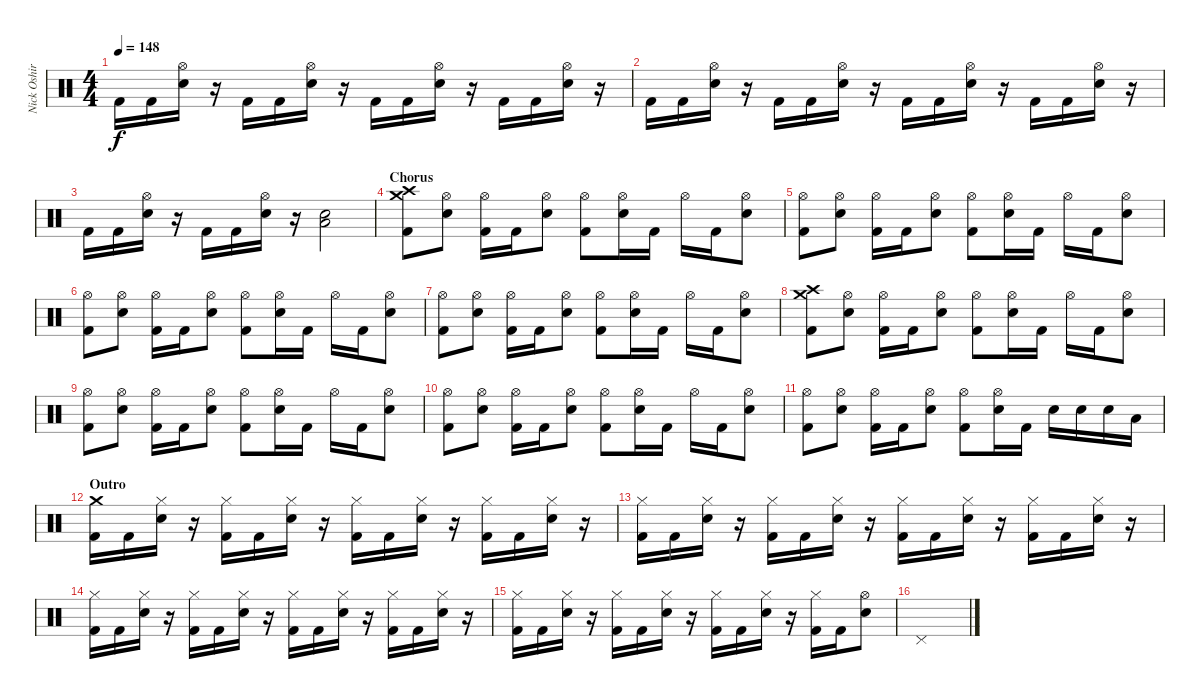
\track ("Nick Oshiro - Drums" "Nick Oshir") {instrument percussion}
\staff {score}
\articulation defaults
\ts (4 4)
\tempo 148
\clef neutral
\ks c "Kick (hit) 2".16{dy f} "Kick (hit) 2".16
("Hi-Hat (open)" "Electric Snare (hit)").16 r.16 "Kick (hit) 2".16 "Kick (hit) 2".16 ("Hi-Hat (open)" "Electric Snare (hit)").16 r.16 "Kick (hit) 2".16 "Kick (hit) 2".16 ("Hi-Hat (open)" "Electric Snare (hit)").16 r.16 "Kick (hit) 2".16 "Kick (hit) 2".16 ("Hi-Hat (open)" "Electric Snare (hit)").16 r.16 |
"Kick (hit) 2".16 "Kick (hit) 2".16 ("Hi-Hat (open)" "Electric Snare (hit)").16 r.16 "Kick (hit) 2".16 "Kick (hit) 2".16 ("Hi-Hat (open)" "Electric Snare (hit)").16 r.16 "Kick (hit) 2".16 "Kick (hit) 2".16 ("Hi-Hat (open)" "Electric Snare (hit)").16 r.16 "Kick (hit) 2".16 "Kick (hit) 2".16 ("Hi-Hat (open)" "Electric Snare (hit)").16 r.16 |
"Kick (hit) 2".16 "Kick (hit) 2".16 ("Hi-Hat (open)" "Electric Snare (hit)").16 r.16 "Kick (hit) 2".16 "Kick (hit) 2".16 ("Hi-Hat (open)" "Electric Snare (hit)").16 r.16 ("Electric Snare (hit)" "Low Tom (hit)").2 |
\section ("" "Chorus")
("Crash high (hit)" "Crash medium (hit)" "Kick (hit) 2").8 ("Hi-Hat (open)" "Electric Snare (hit)").8 ("Hi-Hat (open)" "Kick (hit) 2").16 "Kick (hit) 2".16 ("Hi-Hat (open)" "Electric Snare (hit)").8 ("Hi-Hat (open)" "Kick (hit) 2").8 ("Hi-Hat (open)" "Electric Snare (hit)").16 "Kick (hit) 2".16 "Hi-Hat (open)".16 "Kick (hit) 2".16 ("Hi-Hat (open)" "Electric Snare (hit)").8 |
("Hi-Hat (open)" "Kick (hit) 2").8 ("Hi-Hat (open)" "Electric Snare (hit)").8 ("Hi-Hat (open)" "Kick (hit) 2").16 "Kick (hit) 2".16 ("Hi-Hat (open)" "Electric Snare (hit)").8 ("Hi-Hat (open)" "Kick (hit) 2").8 ("Hi-Hat (open)" "Electric Snare (hit)").16 "Kick (hit) 2".16 "Hi-Hat (open)".16 "Kick (hit) 2".16 ("Hi-Hat (open)" "Electric Snare (hit)").8 |
("Hi-Hat (open)" "Kick (hit) 2").8 ("Hi-Hat (open)" "Electric Snare (hit)").8 ("Hi-Hat (open)" "Kick (hit) 2").16 "Kick (hit) 2".16 ("Hi-Hat (open)" "Electric Snare (hit)").8 ("Hi-Hat (open)" "Kick (hit) 2").8 ("Hi-Hat (open)" "Electric Snare (hit)").16 "Kick (hit) 2".16 "Hi-Hat (open)".16 "Kick (hit) 2".16 ("Hi-Hat (open)" "Electric Snare (hit)").8 |
("Hi-Hat (open)" "Kick (hit) 2").8 ("Hi-Hat (open)" "Electric Snare (hit)").8 ("Hi-Hat (open)" "Kick (hit) 2").16 "Kick (hit) 2".16 ("Hi-Hat (open)" "Electric Snare (hit)").8 ("Hi-Hat (open)" "Kick (hit) 2").8 ("Hi-Hat (open)" "Electric Snare (hit)").16 "Kick (hit) 2".16 "Hi-Hat (open)".16 "Kick (hit) 2".16 ("Hi-Hat (open)" "Electric Snare (hit)").8 |
("Crash high (hit)" "Crash medium (hit)" "Kick (hit) 2").8 ("Hi-Hat (open)" "Electric Snare (hit)").8 ("Hi-Hat (open)" "Kick (hit) 2").16 "Kick (hit) 2".16 ("Hi-Hat (open)" "Electric Snare (hit)").8 ("Hi-Hat (open)" "Kick (hit) 2").8 ("Hi-Hat (open)" "Electric Snare (hit)").16 "Kick (hit) 2".16 "Hi-Hat (open)".16 "Kick (hit) 2".16 ("Hi-Hat (open)" "Electric Snare (hit)").8 |
("Hi-Hat (open)" "Kick (hit) 2").8 ("Hi-Hat (open)" "Electric Snare (hit)").8 ("Hi-Hat (open)" "Kick (hit) 2").16 "Kick (hit) 2".16 ("Hi-Hat (open)" "Electric Snare (hit)").8 ("Hi-Hat (open)" "Kick (hit) 2").8 ("Hi-Hat (open)" "Electric Snare (hit)").16 "Kick (hit) 2".16 "Hi-Hat (open)".16 "Kick (hit) 2".16 ("Hi-Hat (open)" "Electric Snare (hit)").8 |
("Hi-Hat (open)" "Kick (hit) 2").8 ("Hi-Hat (open)" "Electric Snare (hit)").8 ("Hi-Hat (open)" "Kick (hit) 2").16 "Kick (hit) 2".16 ("Hi-Hat (open)" "Electric Snare (hit)").8 ("Hi-Hat (open)" "Kick (hit) 2").8 ("Hi-Hat (open)" "Electric Snare (hit)").16 "Kick (hit) 2".16 "Hi-Hat (open)".16 "Kick (hit) 2".16 ("Hi-Hat (open)" "Electric Snare (hit)").8 |
("Hi-Hat (open)" "Kick (hit) 2").8 ("Hi-Hat (open)" "Electric Snare (hit)").8 ("Hi-Hat (open)" "Kick (hit) 2").16 "Kick (hit) 2".16 ("Hi-Hat (open)" "Electric Snare (hit)").8 ("Hi-Hat (open)" "Kick (hit) 2").8 ("Hi-Hat (open)" "Electric Snare (hit)").16 "Kick (hit) 2".16 "Electric Snare (hit)".16 "Electric Snare (hit)".16 "Electric Snare (hit)".16 "Low Tom (hit)".16 |
\section ("" "Outro")
("Crash medium (hit)" "Kick (hit) 2").16 "Kick (hit) 2".16 ("Hi-Hat (closed)" "Electric Snare (hit)").16 r.16 ("Hi-Hat (closed)" "Kick (hit) 2").16 "Kick (hit) 2".16 ("Hi-Hat (closed)" "Electric Snare (hit)").16 r.16 ("Hi-Hat (closed)" "Kick (hit) 2").16 "Kick (hit) 2".16 ("Hi-Hat (closed)" "Electric Snare (hit)").16 r.16 ("Hi-Hat (closed)" "Kick (hit) 2").16 "Kick (hit) 2".16 ("Hi-Hat (closed)" "Electric Snare (hit)").16 r.16 |
("Hi-Hat (closed)" "Kick (hit) 2").16 "Kick (hit) 2".16 ("Hi-Hat (closed)" "Electric Snare (hit)").16 r.16 ("Hi-Hat (closed)" "Kick (hit) 2").16 "Kick (hit) 2".16 ("Hi-Hat (closed)" "Electric Snare (hit)").16 r.16 ("Hi-Hat (closed)" "Kick (hit) 2").16 "Kick (hit) 2".16 ("Hi-Hat (closed)" "Electric Snare (hit)").16 r.16 ("Hi-Hat (closed)" "Kick (hit) 2").16 "Kick (hit) 2".16 ("Hi-Hat (closed)" "Electric Snare (hit)").16 r.16 |
("Hi-Hat (closed)" "Kick (hit) 2").16 "Kick (hit) 2".16 ("Hi-Hat (closed)" "Electric Snare (hit)").16 r.16 ("Hi-Hat (closed)" "Kick (hit) 2").16 "Kick (hit) 2".16 ("Hi-Hat (closed)" "Electric Snare (hit)").16 r.16 ("Hi-Hat (closed)" "Kick (hit) 2").16 "Kick (hit) 2".16 ("Hi-Hat (closed)" "Electric Snare (hit)").16 r.16 ("Hi-Hat (closed)" "Kick (hit) 2").16 "Kick (hit) 2".16 ("Hi-Hat (closed)" "Electric Snare (hit)").16 r.16 |
("Hi-Hat (closed)" "Kick (hit) 2").16 "Kick (hit) 2".16 ("Hi-Hat (closed)" "Electric Snare (hit)").16 r.16 ("Hi-Hat (closed)" "Kick (hit) 2").16 "Kick (hit) 2".16 ("Hi-Hat (closed)" "Electric Snare (hit)").16 r.16 ("Hi-Hat (closed)" "Kick (hit) 2").16 "Kick (hit) 2".16 ("Hi-Hat (closed)" "Electric Snare (hit)").16 r.16 ("Hi-Hat (closed)" "Kick (hit) 2").16 "Kick (hit) 2".16 ("Hi-Hat (open)" "Electric Snare (hit)").8 |
\section ("" "")
"Pedal Hi-Hat (hit)".1
